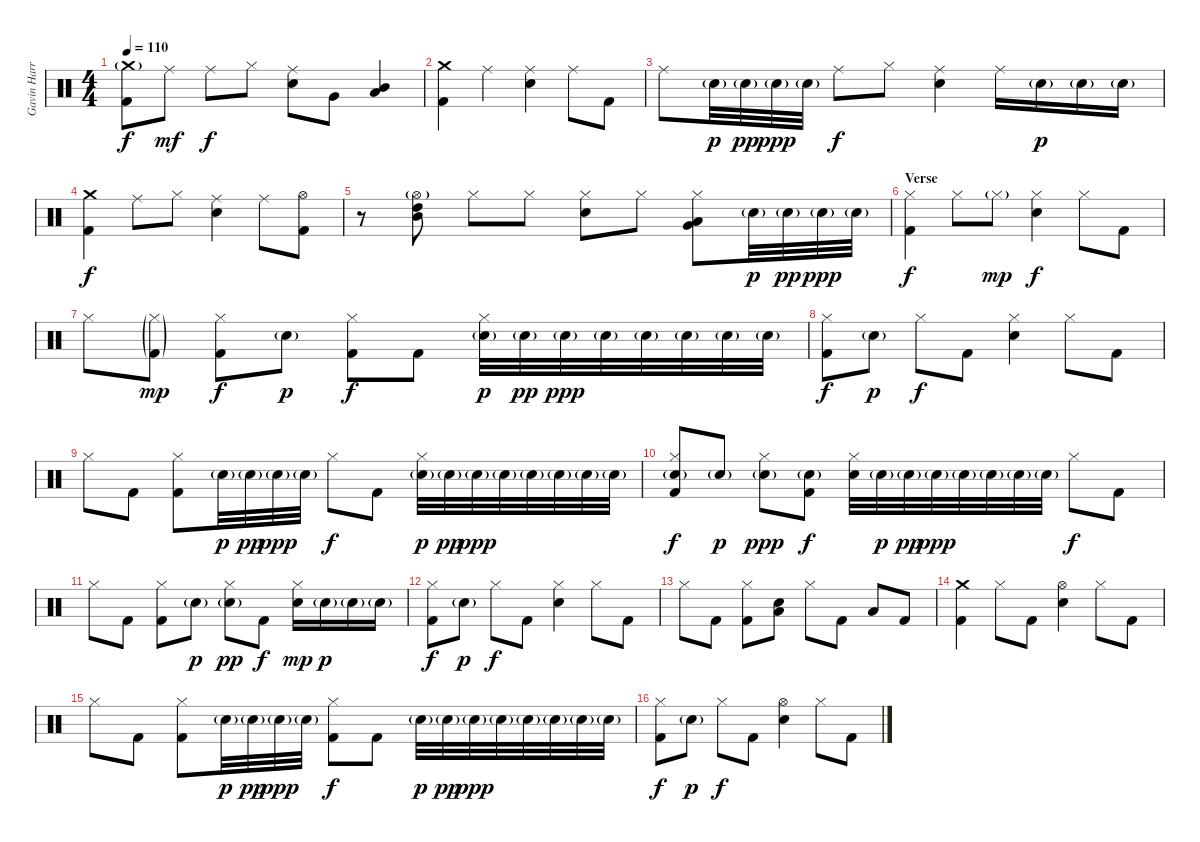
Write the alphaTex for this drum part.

\track ("Gavin Harrison - Drums" "Gavin Harr") {instrument percussion}
\staff {score}
\articulation defaults
\ts (4 4)
\tempo 110
\clef neutral
\ks c
("Crash medium (hit)"{g} "Kick (hit) 2").8{dy f} "Ride (middle)".8{dy mf} "Ride (middle)".8{dy f} "Hi-Hat (closed)".8 ("Ride (middle)" "Electric Snare (hit)").8 "Very Low Tom (hit)".8 ("Mid Tom (hit)" "Low Tom (hit)").4 |
("Crash medium (hit)" "Kick (hit) 2").4 "Ride (middle)".4 ("Ride (middle)" "Electric Snare (hit)").4 "Ride (middle)".8 "Kick (hit) 2".8 |
"Ride (middle)".8 "Electric Snare (hit)"{g}.32{dy p} "Electric Snare (hit)"{g}.32{dy pp} "Electric Snare (hit)"{g}.32{dy ppp} "Electric Snare (hit)"{g}.32 "Ride (middle)".8{dy f} "Hi-Hat (closed)".8 ("Ride (middle)" "Electric Snare (hit)").4 "Ride (middle)".16 "Electric Snare (hit)"{g}.16{dy p} "Electric Snare (hit)"{g}.16 "Electric Snare (hit)"{g}.16 |
("Crash medium (hit)" "Kick (hit) 2").4{dy f} "Ride (middle)".8 "Hi-Hat (closed)".8 ("Ride (middle)" "Electric Snare (hit)").4 "Ride (middle)".8 ("Hi-Hat (open)" "Kick (hit) 2").8 |
r.8 ("Hi-Hat (open)"{g} "High Tom (hit)" "Mid Tom (hit)").8 "Hi-Hat (closed)".8 "Hi-Hat (closed)".8 ("Hi-Hat (closed)" "Electric Snare (hit)").8 "Hi-Hat (closed)".8 ("Hi-Hat (closed)" "Low Tom (hit)" "Very Low Tom (hit)").8 "Electric Snare (hit)"{g}.32{dy p} "Electric Snare (hit)"{g}.32{dy pp} "Electric Snare (hit)"{g}.32{dy ppp} "Electric Snare (hit)"{g}.32 |
\section ("" "Verse")
("Hi-Hat (closed)" "Kick (hit) 2").4{dy f} "Hi-Hat (closed)".8 "Hi-Hat (closed)"{g}.8{dy mp} ("Hi-Hat (closed)" "Electric Snare (hit)").4{dy f} "Hi-Hat (closed)".8 "Kick (hit) 2".8 |
"Hi-Hat (closed)".8 ("Hi-Hat (closed)"{g} "Kick (hit) 2"{g}).8{dy mp} ("Hi-Hat (closed)" "Kick (hit) 2").8{dy f} "Electric Snare (hit)"{g}.8{dy p} ("Hi-Hat (closed)" "Kick (hit) 2").8{dy f} "Kick (hit) 2".8 ("Hi-Hat (closed)" "Electric Snare (hit)"{g}).32{dy p} "Electric Snare (hit)"{g}.32{dy pp} "Electric Snare (hit)"{g}.32{dy ppp} "Electric Snare (hit)"{g}.32 "Electric Snare (hit)"{g}.32 "Electric Snare (hit)"{g}.32 "Electric Snare (hit)"{g}.32 "Electric Snare (hit)"{g}.32 |
("Hi-Hat (closed)" "Kick (hit) 2").8{dy f} "Electric Snare (hit)"{g}.8{dy p} "Hi-Hat (closed)".8{dy f} "Kick (hit) 2".8 ("Hi-Hat (closed)" "Electric Snare (hit)").4 "Hi-Hat (closed)".8 "Kick (hit) 2".8 |
"Hi-Hat (closed)".8 "Kick (hit) 2".8 ("Hi-Hat (closed)" "Kick (hit) 2").8 "Electric Snare (hit)"{g}.32{dy p} "Electric Snare (hit)"{g}.32{dy pp} "Electric Snare (hit)"{g}.32{dy ppp} "Electric Snare (hit)"{g}.32 "Hi-Hat (closed)".8{dy f} "Kick (hit) 2".8 ("Hi-Hat (closed)" "Electric Snare (hit)"{g}).32{dy p} "Electric Snare (hit)"{g}.32{dy pp} "Electric Snare (hit)"{g}.32{dy ppp} "Electric Snare (hit)"{g}.32 "Electric Snare (hit)"{g}.32 "Electric Snare (hit)"{g}.32 "Electric Snare (hit)"{g}.32 "Electric Snare (hit)"{g}.32 |
("Hi-Hat (closed)" "Electric Snare (hit)"{g} "Kick (hit) 2").8{dy f} "Electric Snare (hit)"{g}.8{dy p} ("Hi-Hat (closed)" "Electric Snare (hit)"{g}).8{dy ppp} ("Electric Snare (hit)"{g} "Kick (hit) 2").8{dy f} ("Hi-Hat (closed)" "Electric Snare (hit)").32 "Electric Snare (hit)"{g}.32{dy p} "Electric Snare (hit)"{g}.32{dy pp} "Electric Snare (hit)"{g}.32{dy ppp} "Electric Snare (hit)"{g}.32 "Electric Snare (hit)"{g}.32 "Electric Snare (hit)"{g}.32 "Electric Snare (hit)"{g}.32 "Hi-Hat (closed)".8{dy f} "Kick (hit) 2".8 |
"Hi-Hat (closed)".8 "Kick (hit) 2".8 ("Hi-Hat (closed)" "Kick (hit) 2").8 "Electric Snare (hit)"{g}.8{dy p} ("Hi-Hat (closed)" "Electric Snare (hit)"{g}).8{dy pp} "Kick (hit) 2".8{dy f} ("Hi-Hat (closed)" "Electric Snare (hit)").16{dy mp} "Electric Snare (hit)"{g}.16{dy p} "Electric Snare (hit)"{g}.16 "Electric Snare (hit)"{g}.16 |
("Hi-Hat (closed)" "Kick (hit) 2").8{dy f} "Electric Snare (hit)"{g}.8{dy p} "Hi-Hat (closed)".8{dy f} "Kick (hit) 2".8 ("Hi-Hat (closed)" "Electric Snare (hit)").4 "Hi-Hat (closed)".8 "Kick (hit) 2".8 |
"Hi-Hat (closed)".8 "Kick (hit) 2".8 ("Hi-Hat (closed)" "Kick (hit) 2").8 ("Electric Snare (hit)" "Low Tom (hit)").8 "Hi-Hat (closed)".8 "Kick (hit) 2".8 "Low Floor Tom (hit)".8 "Kick (hit) 2".8 |
("Crash medium (hit)" "Kick (hit) 2").4 "Hi-Hat (closed)".8 "Kick (hit) 2".8 ("Hi-Hat (open)" "Electric Snare (hit)").4 "Hi-Hat (closed)".8 "Kick (hit) 2".8 |
"Hi-Hat (closed)".8 "Kick (hit) 2".8 ("Hi-Hat (closed)" "Kick (hit) 2").8 "Electric Snare (hit)"{g}.32{dy p} "Electric Snare (hit)"{g}.32{dy pp} "Electric Snare (hit)"{g}.32{dy ppp} "Electric Snare (hit)"{g}.32 ("Hi-Hat (closed)" "Kick (hit) 2").8{dy f} "Kick (hit) 2".8 "Electric Snare (hit)"{g}.32{dy p} "Electric Snare (hit)"{g}.32{dy pp} "Electric Snare (hit)"{g}.32{dy ppp} "Electric Snare (hit)"{g}.32 "Electric Snare (hit)"{g}.32 "Electric Snare (hit)"{g}.32 "Electric Snare (hit)"{g}.32 "Electric Snare (hit)"{g}.32 |
("Hi-Hat (closed)" "Kick (hit) 2").8{dy f} "Electric Snare (hit)"{g}.8{dy p} "Hi-Hat (closed)".8{dy f} "Kick (hit) 2".8 ("Hi-Hat (open)" "Electric Snare (hit)").4 "Hi-Hat (closed)".8 "Kick (hit) 2".8
